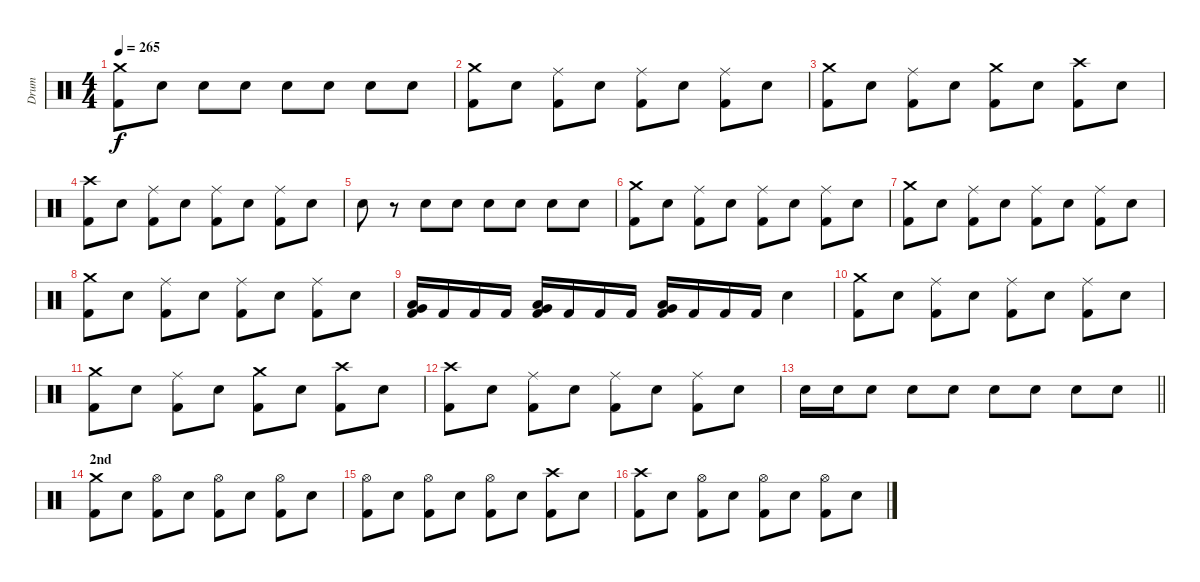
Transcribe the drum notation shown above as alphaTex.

\track ("Drum" "Drum") {instrument percussion}
\staff {score}
\articulation defaults
\ts (4 4)
\tempo 265
\clef neutral
\ks c
("Crash medium (hit)" "Kick (hit) 2").8{dy f} "Snare (hit) 2".8 "Snare (hit) 2".8 "Snare (hit) 2".8 "Snare (hit) 2".8 "Snare (hit) 2".8 "Snare (hit) 2".8 "Snare (hit) 2".8 |
("Crash medium (hit)" "Kick (hit) 2").8 "Snare (hit) 2".8 ("Ride (middle)" "Kick (hit) 2").8 "Snare (hit) 2".8 ("Ride (middle)" "Kick (hit) 2").8 "Snare (hit) 2".8 ("Ride (middle)" "Kick (hit) 2").8 "Snare (hit) 2".8 |
("Crash medium (hit)" "Kick (hit) 2").8 "Snare (hit) 2".8 ("Ride (middle)" "Kick (hit) 2").8 "Snare (hit) 2".8 ("Crash medium (hit)" "Kick (hit) 2").8 "Snare (hit) 2".8 ("Crash high (hit)" "Kick (hit) 2").8 "Snare (hit) 2".8 |
("Crash high (hit)" "Kick (hit) 2").8 "Snare (hit) 2".8 ("Ride (middle)" "Kick (hit) 2").8 "Snare (hit) 2".8 ("Ride (middle)" "Kick (hit) 2").8 "Snare (hit) 2".8 ("Ride (middle)" "Kick (hit) 2").8 "Snare (hit) 2".8 |
"Snare (hit) 2".8 r.8 "Snare (hit) 2".8 "Snare (hit) 2".8 "Snare (hit) 2".8 "Snare (hit) 2".8 "Snare (hit) 2".8 "Snare (hit) 2".8 |
("Crash medium (hit)" "Kick (hit) 2").8 "Snare (hit) 2".8 ("Ride (middle)" "Kick (hit) 2").8 "Snare (hit) 2".8 ("Ride (middle)" "Kick (hit) 2").8 "Snare (hit) 2".8 ("Ride (middle)" "Kick (hit) 2").8 "Snare (hit) 2".8 |
("Crash medium (hit)" "Kick (hit) 2").8 "Snare (hit) 2".8 ("Ride (middle)" "Kick (hit) 2").8 "Snare (hit) 2".8 ("Ride (middle)" "Kick (hit) 2").8 "Snare (hit) 2".8 ("Ride (middle)" "Kick (hit) 2").8 "Snare (hit) 2".8 |
("Crash medium (hit)" "Kick (hit) 2").8 "Snare (hit) 2".8 ("Ride (middle)" "Kick (hit) 2").8 "Snare (hit) 2".8 ("Ride (middle)" "Kick (hit) 2").8 "Snare (hit) 2".8 ("Ride (middle)" "Kick (hit) 2").8 "Snare (hit) 2".8 |
("Very Low Tom (hit)" "Low Tom (hit)" "Kick (hit) 2").16 "Kick (hit) 2".16 "Kick (hit) 2".16 "Kick (hit) 2".16 ("Very Low Tom (hit)" "Low Tom (hit)" "Kick (hit) 2").16 "Kick (hit) 2".16 "Kick (hit) 2".16 "Kick (hit) 2".16 ("Very Low Tom (hit)" "Low Tom (hit)" "Kick (hit) 2").16 "Kick (hit) 2".16 "Kick (hit) 2".16 "Kick (hit) 2".16 "Snare (hit) 2".4 |
("Crash medium (hit)" "Kick (hit) 2").8 "Snare (hit) 2".8 ("Ride (middle)" "Kick (hit) 2").8 "Snare (hit) 2".8 ("Ride (middle)" "Kick (hit) 2").8 "Snare (hit) 2".8 ("Ride (middle)" "Kick (hit) 2").8 "Snare (hit) 2".8 |
("Crash medium (hit)" "Kick (hit) 2").8 "Snare (hit) 2".8 ("Ride (middle)" "Kick (hit) 2").8 "Snare (hit) 2".8 ("Crash medium (hit)" "Kick (hit) 2").8 "Snare (hit) 2".8 ("Crash high (hit)" "Kick (hit) 2").8 "Snare (hit) 2".8 |
("Crash high (hit)" "Kick (hit) 2").8 "Snare (hit) 2".8 ("Ride (middle)" "Kick (hit) 2").8 "Snare (hit) 2".8 ("Ride (middle)" "Kick (hit) 2").8 "Snare (hit) 2".8 ("Ride (middle)" "Kick (hit) 2").8 "Snare (hit) 2".8 |
\barLineRight lightlight "Snare (hit) 2".16 "Snare (hit) 2".16 "Snare (hit) 2".8 "Snare (hit) 2".8 "Snare (hit) 2".8 "Snare (hit) 2".8 "Snare (hit) 2".8 "Snare (hit) 2".8 "Snare (hit) 2".8
|
\section ("" "2nd")
("Crash medium (hit)" "Kick (hit) 2").8 "Snare (hit) 2".8 ("Hi-Hat (open)" "Kick (hit) 2").8 "Snare (hit) 2".8 ("Hi-Hat (open)" "Kick (hit) 2").8 "Snare (hit) 2".8 ("Hi-Hat (open)" "Kick (hit) 2").8 "Snare (hit) 2".8 |
("Hi-Hat (open)" "Kick (hit) 2").8 "Snare (hit) 2".8 ("Hi-Hat (open)" "Kick (hit) 2").8 "Snare (hit) 2".8 ("Hi-Hat (open)" "Kick (hit) 2").8 "Snare (hit) 2".8 ("Crash high (hit)" "Kick (hit) 2").8 "Snare (hit) 2".8 |
("Crash high (hit)" "Kick (hit) 2").8 "Snare (hit) 2".8 ("Hi-Hat (open)" "Kick (hit) 2").8 "Snare (hit) 2".8 ("Hi-Hat (open)" "Kick (hit) 2").8 "Snare (hit) 2".8 ("Hi-Hat (open)" "Kick (hit) 2").8 "Snare (hit) 2".8
